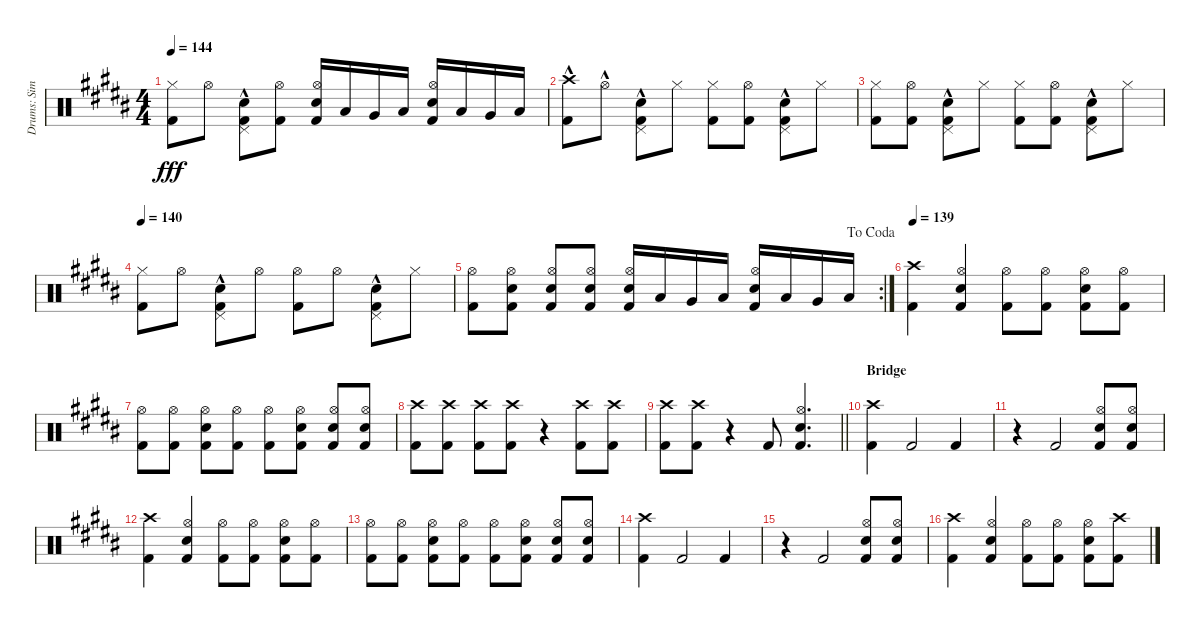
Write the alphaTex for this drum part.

\track ("Drums: Simon" "Drums: Sim") {instrument percussion}
\staff {score}
\articulation defaults
\ts (4 4)
\tempo 144
\clef neutral
\ks b
("Hi-Hat (closed)" "Kick (hit) 2").8{dy fff} "Hi-Hat (open)".8 ("Pedal Hi-Hat (hit)"{hac} "Snare (hit) 2"{hac} "Kick (hit) 2"{hac}).8 ("Hi-Hat (open)" "Kick (hit) 2").8 ("Hi-Hat (open)" "Snare (hit) 2" "Kick (hit) 2").16 "Low Tom (hit)".16 "Very Low Tom (hit)".16 "Low Floor Tom (hit)".16 ("Hi-Hat (open)" "Snare (hit) 2" "Kick (hit) 2").16 "Low Tom (hit)".16 "Very Low Tom (hit)".16 "Low Floor Tom (hit)".16 |
("Crash high (hit)"{hac} "Kick (hit) 2"{hac}).8 "Hi-Hat (open)"{hac}.8 ("Pedal Hi-Hat (hit)"{hac} "Snare (hit) 2"{hac} "Kick (hit) 2"{hac}).8 "Hi-Hat (closed)".8 ("Hi-Hat (closed)" "Kick (hit) 2").8 ("Hi-Hat (open)" "Kick (hit) 2").8 ("Pedal Hi-Hat (hit)"{hac} "Snare (hit) 2"{hac} "Kick (hit) 2"{hac}).8 "Hi-Hat (closed)".8 |
("Hi-Hat (closed)" "Kick (hit) 2").8 ("Hi-Hat (open)" "Kick (hit) 2").8 ("Pedal Hi-Hat (hit)"{hac} "Snare (hit) 2"{hac} "Kick (hit) 2"{hac}).8 "Hi-Hat (closed)".8 ("Hi-Hat (closed)" "Kick (hit) 2").8 ("Hi-Hat (open)" "Kick (hit) 2").8 ("Pedal Hi-Hat (hit)"{hac} "Snare (hit) 2"{hac} "Kick (hit) 2"{hac}).8 "Hi-Hat (closed)".8 |
\tempo 140
("Hi-Hat (closed)" "Kick (hit) 2").8 "Hi-Hat (open)".8 ("Pedal Hi-Hat (hit)"{hac} "Snare (hit) 2"{hac} "Kick (hit) 2"{hac}).8 "Hi-Hat (open)".8 ("Hi-Hat (open)" "Kick (hit) 2").8 "Hi-Hat (open)".8 ("Pedal Hi-Hat (hit)"{hac} "Snare (hit) 2"{hac} "Kick (hit) 2"{hac}).8 "Hi-Hat (closed)".8 |
\rc 2
\jump dacoda
("Hi-Hat (open)" "Kick (hit) 2").8 ("Hi-Hat (open)" "Snare (hit) 2" "Kick (hit) 2").8 ("Hi-Hat (open)" "Snare (hit) 2" "Kick (hit) 2").8 ("Hi-Hat (open)" "Snare (hit) 2" "Kick (hit) 2").8 ("Hi-Hat (open)" "Snare (hit) 2" "Kick (hit) 2").16 "Low Tom (hit)".16 "Very Low Tom (hit)".16 "Low Floor Tom (hit)".16 ("Hi-Hat (open)" "Snare (hit) 2" "Kick (hit) 2").16 "Low Tom (hit)".16 "Very Low Tom (hit)".16 "Low Floor Tom (hit)".16 |
\tempo 139
("Crash high (hit)" "Kick (hit) 2").4 ("Hi-Hat (open)" "Snare (hit) 2" "Kick (hit) 2").4 ("Hi-Hat (open)" "Kick (hit) 2").8 ("Hi-Hat (open)" "Kick (hit) 2").8 ("Hi-Hat (open)" "Snare (hit) 2" "Kick (hit) 2").8 ("Hi-Hat (open)" "Kick (hit) 2").8 |
("Hi-Hat (open)" "Kick (hit) 2").8 ("Hi-Hat (open)" "Kick (hit) 2").8 ("Hi-Hat (open)" "Snare (hit) 2" "Kick (hit) 2").8 ("Hi-Hat (open)" "Kick (hit) 2").8 ("Hi-Hat (open)" "Kick (hit) 2").8 ("Hi-Hat (open)" "Snare (hit) 2" "Kick (hit) 2").8 ("Hi-Hat (open)" "Snare (hit) 2" "Kick (hit) 2").8 ("Hi-Hat (open)" "Snare (hit) 2" "Kick (hit) 2").8 |
("Crash high (hit)" "Kick (hit) 2").8 ("Crash high (hit)" "Kick (hit) 2").8 ("Crash high (hit)" "Kick (hit) 2").8 ("Crash high (hit)" "Kick (hit) 2").8 r.4 ("Crash high (hit)" "Kick (hit) 2").8 ("Crash high (hit)" "Kick (hit) 2").8 |
\barLineRight lightlight
("Crash high (hit)" "Kick (hit) 2").8 ("Crash high (hit)" "Kick (hit) 2").8 r.4 "Kick (hit) 2".8 ("Hi-Hat (open)" "Snare (hit) 2" "Kick (hit) 2").4{d} |
\section ("" "Bridge")
("Crash high (hit)" "Kick (hit) 2").4 "Kick (hit) 2".2 "Kick (hit) 2".4 |
r.4 "Kick (hit) 2".2 ("Hi-Hat (open)" "Snare (hit) 2" "Kick (hit) 2").8 ("Hi-Hat (open)" "Snare (hit) 2" "Kick (hit) 2").8 |
("Crash high (hit)" "Kick (hit) 2").4 ("Hi-Hat (open)" "Snare (hit) 2" "Kick (hit) 2").4 ("Hi-Hat (open)" "Kick (hit) 2").8 ("Hi-Hat (open)" "Kick (hit) 2").8 ("Hi-Hat (open)" "Snare (hit) 2" "Kick (hit) 2").8 ("Hi-Hat (open)" "Kick (hit) 2").8 |
("Hi-Hat (open)" "Kick (hit) 2").8 ("Hi-Hat (open)" "Kick (hit) 2").8 ("Hi-Hat (open)" "Snare (hit) 2" "Kick (hit) 2").8 ("Hi-Hat (open)" "Kick (hit) 2").8 ("Hi-Hat (open)" "Kick (hit) 2").8 ("Hi-Hat (open)" "Snare (hit) 2" "Kick (hit) 2").8 ("Hi-Hat (open)" "Snare (hit) 2" "Kick (hit) 2").8 ("Hi-Hat (open)" "Snare (hit) 2" "Kick (hit) 2").8 |
("Crash high (hit)" "Kick (hit) 2").4 "Kick (hit) 2".2 "Kick (hit) 2".4 |
r.4 "Kick (hit) 2".2 ("Hi-Hat (open)" "Snare (hit) 2" "Kick (hit) 2").8 ("Hi-Hat (open)" "Snare (hit) 2" "Kick (hit) 2").8 |
("Crash high (hit)" "Kick (hit) 2").4 ("Hi-Hat (open)" "Snare (hit) 2" "Kick (hit) 2").4 ("Hi-Hat (open)" "Kick (hit) 2").8 ("Hi-Hat (open)" "Kick (hit) 2").8 ("Hi-Hat (open)" "Snare (hit) 2" "Kick (hit) 2").8 ("Crash high (hit)" "Kick (hit) 2").8
